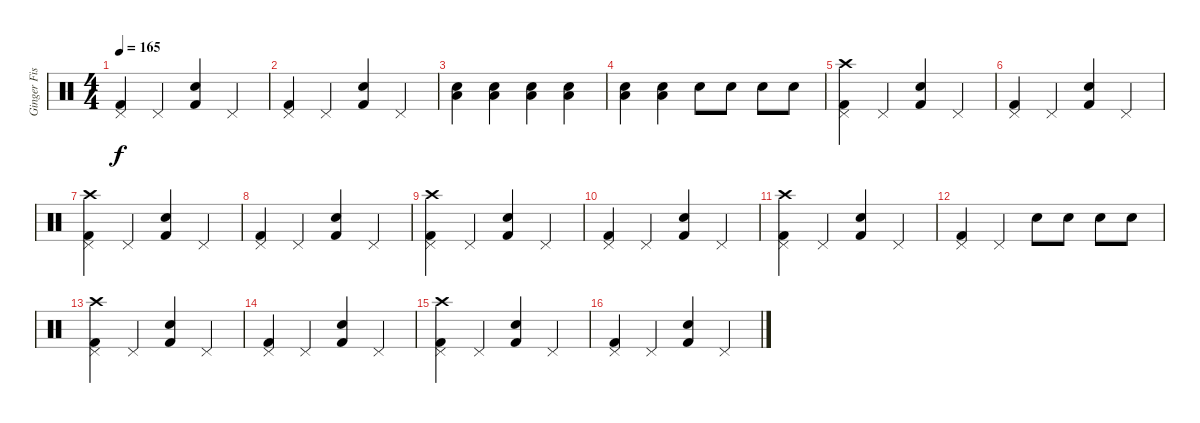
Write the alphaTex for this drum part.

\track ("Ginger Fish" "Ginger Fis") {instrument percussion}
\staff {score}
\articulation defaults
\ts (4 4)
\tempo 165
\clef neutral
\ks c
("Pedal Hi-Hat (hit)" "Kick (hit) 2").4{dy f} "Pedal Hi-Hat (hit)".4 ("Electric Snare (hit)" "Kick (hit) 2").4 "Pedal Hi-Hat (hit)".4 |
("Pedal Hi-Hat (hit)" "Kick (hit) 2").4 "Pedal Hi-Hat (hit)".4 ("Electric Snare (hit)" "Kick (hit) 2").4 "Pedal Hi-Hat (hit)".4 |
("Electric Snare (hit)" "Low Tom (hit)").4 ("Low Tom (hit)" "Electric Snare (hit)").4 ("Electric Snare (hit)" "Low Tom (hit)").4 ("Low Tom (hit)" "Electric Snare (hit)").4 |
("Low Tom (hit)" "Electric Snare (hit)").4 ("Low Tom (hit)" "Electric Snare (hit)").4 "Electric Snare (hit)".8 "Electric Snare (hit)".8 "Electric Snare (hit)".8 "Electric Snare (hit)".8 |
("Crash high (hit)" "Pedal Hi-Hat (hit)" "Kick (hit) 2").4 "Pedal Hi-Hat (hit)".4 ("Electric Snare (hit)" "Kick (hit) 2").4 "Pedal Hi-Hat (hit)".4 |
("Pedal Hi-Hat (hit)" "Kick (hit) 2").4 "Pedal Hi-Hat (hit)".4 ("Electric Snare (hit)" "Kick (hit) 2").4 "Pedal Hi-Hat (hit)".4 |
("Crash high (hit)" "Pedal Hi-Hat (hit)" "Kick (hit) 2").4 "Pedal Hi-Hat (hit)".4 ("Electric Snare (hit)" "Kick (hit) 2").4 "Pedal Hi-Hat (hit)".4 |
("Pedal Hi-Hat (hit)" "Kick (hit) 2").4 "Pedal Hi-Hat (hit)".4 ("Electric Snare (hit)" "Kick (hit) 2").4 "Pedal Hi-Hat (hit)".4 |
("Crash high (hit)" "Pedal Hi-Hat (hit)" "Kick (hit) 2").4 "Pedal Hi-Hat (hit)".4 ("Electric Snare (hit)" "Kick (hit) 2").4 "Pedal Hi-Hat (hit)".4 |
("Pedal Hi-Hat (hit)" "Kick (hit) 2").4 "Pedal Hi-Hat (hit)".4 ("Electric Snare (hit)" "Kick (hit) 2").4 "Pedal Hi-Hat (hit)".4 |
("Crash high (hit)" "Pedal Hi-Hat (hit)" "Kick (hit) 2").4 "Pedal Hi-Hat (hit)".4 ("Electric Snare (hit)" "Kick (hit) 2").4 "Pedal Hi-Hat (hit)".4 |
("Pedal Hi-Hat (hit)" "Kick (hit) 2").4 "Pedal Hi-Hat (hit)".4 "Electric Snare (hit)".8 "Electric Snare (hit)".8 "Electric Snare (hit)".8 "Electric Snare (hit)".8 |
("Crash high (hit)" "Pedal Hi-Hat (hit)" "Kick (hit) 2").4 "Pedal Hi-Hat (hit)".4 ("Electric Snare (hit)" "Kick (hit) 2").4 "Pedal Hi-Hat (hit)".4 |
("Pedal Hi-Hat (hit)" "Kick (hit) 2").4 "Pedal Hi-Hat (hit)".4 ("Electric Snare (hit)" "Kick (hit) 2").4 "Pedal Hi-Hat (hit)".4 |
("Crash high (hit)" "Pedal Hi-Hat (hit)" "Kick (hit) 2").4 "Pedal Hi-Hat (hit)".4 ("Electric Snare (hit)" "Kick (hit) 2").4 "Pedal Hi-Hat (hit)".4 |
("Pedal Hi-Hat (hit)" "Kick (hit) 2").4 "Pedal Hi-Hat (hit)".4 ("Electric Snare (hit)" "Kick (hit) 2").4 "Pedal Hi-Hat (hit)".4
